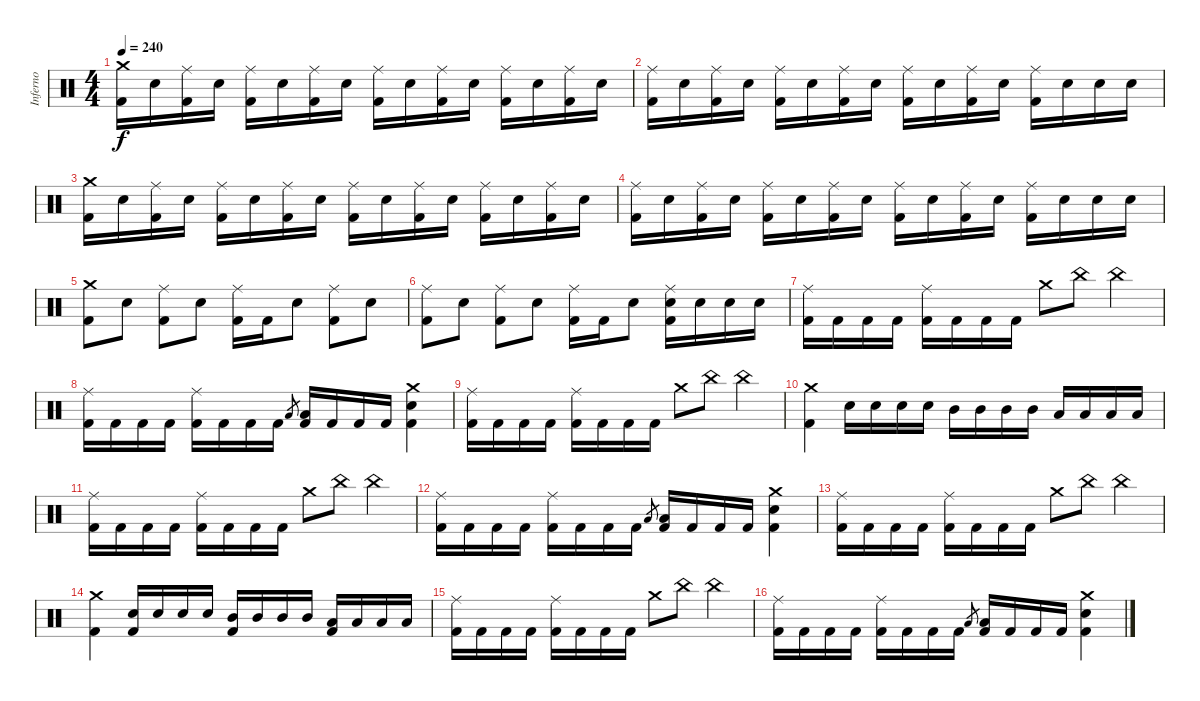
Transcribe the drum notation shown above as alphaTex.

\track ("Inferno" "Inferno") {instrument percussion}
\staff {score}
\articulation defaults
\ts (4 4)
\tempo 240
\clef neutral
\ks c
("Crash medium (hit)" "Kick (hit) 2").16{dy f} "Snare (hit) 2".16 ("Ride (middle)" "Kick (hit) 2").16 "Snare (hit) 2".16 ("Ride (middle)" "Kick (hit) 2").16 "Snare (hit) 2".16 ("Ride (middle)" "Kick (hit) 2").16 "Snare (hit) 2".16 ("Ride (middle)" "Kick (hit) 2").16 "Snare (hit) 2".16 ("Ride (middle)" "Kick (hit) 2").16 "Snare (hit) 2".16 ("Ride (middle)" "Kick (hit) 2").16 "Snare (hit) 2".16 ("Ride (middle)" "Kick (hit) 2").16 "Snare (hit) 2".16 |
("Ride (middle)" "Kick (hit) 2").16 "Snare (hit) 2".16 ("Ride (middle)" "Kick (hit) 2").16 "Snare (hit) 2".16 ("Ride (middle)" "Kick (hit) 2").16 "Snare (hit) 2".16 ("Ride (middle)" "Kick (hit) 2").16 "Snare (hit) 2".16 ("Ride (middle)" "Kick (hit) 2").16 "Snare (hit) 2".16 ("Ride (middle)" "Kick (hit) 2").16 "Snare (hit) 2".16 ("Ride (middle)" "Kick (hit) 2").16 "Snare (hit) 2".16 "Snare (hit) 2".16 "Snare (hit) 2".16 |
("Crash medium (hit)" "Kick (hit) 2").16 "Snare (hit) 2".16 ("Ride (middle)" "Kick (hit) 2").16 "Snare (hit) 2".16 ("Ride (middle)" "Kick (hit) 2").16 "Snare (hit) 2".16 ("Ride (middle)" "Kick (hit) 2").16 "Snare (hit) 2".16 ("Ride (middle)" "Kick (hit) 2").16 "Snare (hit) 2".16 ("Ride (middle)" "Kick (hit) 2").16 "Snare (hit) 2".16 ("Ride (middle)" "Kick (hit) 2").16 "Snare (hit) 2".16 ("Ride (middle)" "Kick (hit) 2").16 "Snare (hit) 2".16 |
("Ride (middle)" "Kick (hit) 2").16 "Snare (hit) 2".16 ("Ride (middle)" "Kick (hit) 2").16 "Snare (hit) 2".16 ("Ride (middle)" "Kick (hit) 2").16 "Snare (hit) 2".16 ("Ride (middle)" "Kick (hit) 2").16 "Snare (hit) 2".16 ("Ride (middle)" "Kick (hit) 2").16 "Snare (hit) 2".16 ("Ride (middle)" "Kick (hit) 2").16 "Snare (hit) 2".16 ("Ride (middle)" "Kick (hit) 2").16 "Snare (hit) 2".16 "Snare (hit) 2".16 "Snare (hit) 2".16 |
("Crash medium (hit)" "Kick (hit) 2").8 "Snare (hit) 2".8 ("Ride (middle)" "Kick (hit) 2").8 "Snare (hit) 2".8 ("Ride (middle)" "Kick (hit) 2").16 "Kick (hit) 2".16 "Snare (hit) 2".8 ("Ride (middle)" "Kick (hit) 2").8 "Snare (hit) 2".8 |
("Ride (middle)" "Kick (hit) 2").8 "Snare (hit) 2".8 ("Ride (middle)" "Kick (hit) 2").8 "Snare (hit) 2".8 ("Ride (middle)" "Kick (hit) 2").16 "Kick (hit) 2".16 "Snare (hit) 2".8 ("Ride (middle)" "Snare (hit) 2" "Kick (hit) 2").16 "Snare (hit) 2".16 "Snare (hit) 2".16 "Snare (hit) 2".16 |
("Ride (middle)" "Kick (hit) 2").16 "Kick (hit) 2".16 "Kick (hit) 2".16 "Kick (hit) 2".16 ("Ride (middle)" "Kick (hit) 2").16 "Kick (hit) 2".16 "Kick (hit) 2".16 "Kick (hit) 2".16 "Crash medium (hit)".8 "China (hit)".8 "China (hit)".4 |
("Ride (middle)" "Kick (hit) 2").16 "Kick (hit) 2".16 "Kick (hit) 2".16 "Kick (hit) 2".16 ("Ride (middle)" "Kick (hit) 2").16 "Kick (hit) 2".16 "Kick (hit) 2".16 "Kick (hit) 2".16 "Low Floor Tom (hit)".8{gr} ("Low Floor Tom (hit)" "Kick (hit) 2").16 "Kick (hit) 2".16 "Kick (hit) 2".16 "Kick (hit) 2".16 ("Crash medium (hit)" "Snare (hit) 2" "Kick (hit) 2").4 |
("Ride (middle)" "Kick (hit) 2").16 "Kick (hit) 2".16 "Kick (hit) 2".16 "Kick (hit) 2".16 ("Ride (middle)" "Kick (hit) 2").16 "Kick (hit) 2".16 "Kick (hit) 2".16 "Kick (hit) 2".16 "Crash medium (hit)".8 "China (hit)".8 "China (hit)".4 |
("Crash medium (hit)" "Kick (hit) 2").4 "Snare (hit) 2".16 "Snare (hit) 2".16 "Snare (hit) 2".16 "Snare (hit) 2".16 "Mid Tom (hit)".16 "Mid Tom (hit)".16 "Mid Tom (hit)".16 "Mid Tom (hit)".16 "Low Tom (hit)".16 "Low Tom (hit)".16 "Low Tom (hit)".16 "Low Tom (hit)".16 |
("Ride (middle)" "Kick (hit) 2").16 "Kick (hit) 2".16 "Kick (hit) 2".16 "Kick (hit) 2".16 ("Ride (middle)" "Kick (hit) 2").16 "Kick (hit) 2".16 "Kick (hit) 2".16 "Kick (hit) 2".16 "Crash medium (hit)".8 "China (hit)".8 "China (hit)".4 |
("Ride (middle)" "Kick (hit) 2").16 "Kick (hit) 2".16 "Kick (hit) 2".16 "Kick (hit) 2".16 ("Ride (middle)" "Kick (hit) 2").16 "Kick (hit) 2".16 "Kick (hit) 2".16 "Kick (hit) 2".16 "Low Floor Tom (hit)".8{gr} ("Low Floor Tom (hit)" "Kick (hit) 2").16 "Kick (hit) 2".16 "Kick (hit) 2".16 "Kick (hit) 2".16 ("Crash medium (hit)" "Snare (hit) 2" "Kick (hit) 2").4 |
("Ride (middle)" "Kick (hit) 2").16 "Kick (hit) 2".16 "Kick (hit) 2".16 "Kick (hit) 2".16 ("Ride (middle)" "Kick (hit) 2").16 "Kick (hit) 2".16 "Kick (hit) 2".16 "Kick (hit) 2".16 "Crash medium (hit)".8 "China (hit)".8 "China (hit)".4 |
("Crash medium (hit)" "Kick (hit) 2").4 ("Snare (hit) 2" "Kick (hit) 2").16 "Snare (hit) 2".16 "Snare (hit) 2".16 "Snare (hit) 2".16 ("Mid Tom (hit)" "Kick (hit) 2").16 "Mid Tom (hit)".16 "Mid Tom (hit)".16 "Mid Tom (hit)".16 ("Low Tom (hit)" "Kick (hit) 2").16 "Low Tom (hit)".16 "Low Tom (hit)".16 "Low Tom (hit)".16 |
("Ride (middle)" "Kick (hit) 2").16 "Kick (hit) 2".16 "Kick (hit) 2".16 "Kick (hit) 2".16 ("Ride (middle)" "Kick (hit) 2").16 "Kick (hit) 2".16 "Kick (hit) 2".16 "Kick (hit) 2".16 "Crash medium (hit)".8 "China (hit)".8 "China (hit)".4 |
("Ride (middle)" "Kick (hit) 2").16 "Kick (hit) 2".16 "Kick (hit) 2".16 "Kick (hit) 2".16 ("Ride (middle)" "Kick (hit) 2").16 "Kick (hit) 2".16 "Kick (hit) 2".16 "Kick (hit) 2".16 "Low Floor Tom (hit)".8{gr} ("Low Floor Tom (hit)" "Kick (hit) 2").16 "Kick (hit) 2".16 "Kick (hit) 2".16 "Kick (hit) 2".16 ("Crash medium (hit)" "Snare (hit) 2" "Kick (hit) 2").4
